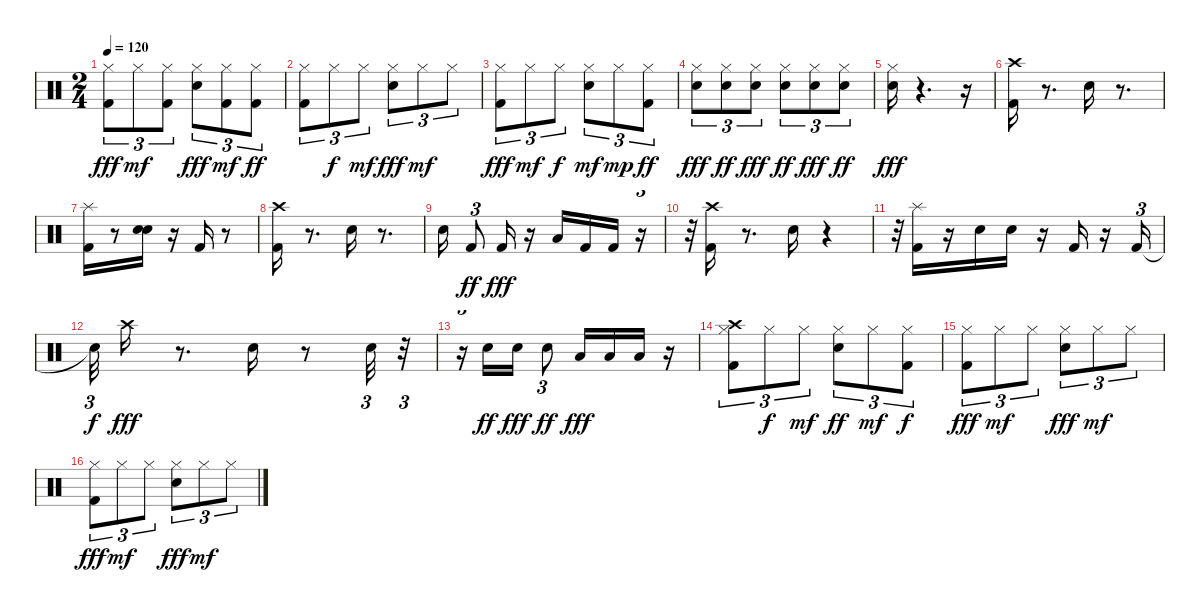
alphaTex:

\track "" {instrument percussion}
\staff {score}
\articulation defaults
\ts (2 4)
\tempo 120
\clef neutral
\ks c
("Kick (hit) 2" "Hi-Hat (closed)").8{tu (3 2) dy fff} "Hi-Hat (closed)".8{tu (3 2) dy mf} ("Kick (hit) 2" "Hi-Hat (closed)").8{tu (3 2)} ("Snare (hit) 2" "Hi-Hat (closed)").8{tu (3 2) dy fff} ("Kick (hit) 2" "Hi-Hat (closed)").8{tu (3 2) dy mf} ("Kick (hit) 2" "Hi-Hat (closed)").8{tu (3 2) dy ff} |
("Kick (hit) 2" "Hi-Hat (closed)").8{tu (3 2)} "Hi-Hat (closed)".8{tu (3 2) dy f} "Hi-Hat (closed)".8{tu (3 2) dy mf} ("Snare (hit) 2" "Hi-Hat (closed)").8{tu (3 2) dy fff} "Hi-Hat (closed)".8{tu (3 2) dy mf} "Hi-Hat (closed)".8{tu (3 2)} |
("Kick (hit) 2" "Hi-Hat (closed)").8{tu (3 2) dy fff} "Hi-Hat (closed)".8{tu (3 2) dy mf} "Hi-Hat (closed)".8{tu (3 2) dy f} ("Snare (hit) 2" "Hi-Hat (closed)").8{tu (3 2) dy mf} "Hi-Hat (closed)".8{tu (3 2) dy mp} ("Kick (hit) 2" "Hi-Hat (closed)").8{tu (3 2) dy ff} |
("Snare (hit) 2" "Hi-Hat (closed)").8{tu (3 2) dy fff} ("Hi-Hat (closed)" "Snare (hit) 2").8{tu (3 2) dy ff} ("Hi-Hat (closed)" "Snare (hit) 2").8{tu (3 2) dy fff} ("Snare (hit) 2" "Hi-Hat (closed)").8{tu (3 2) dy ff} ("Hi-Hat (closed)" "Snare (hit) 2").8{tu (3 2) dy fff} ("Snare (hit) 2" "Hi-Hat (closed)").8{tu (3 2) dy ff} |
("Snare (hit) 2" "Hi-Hat (closed)").16{dy fff} r.4{d} r.16 |
("Crash high (hit)" "Kick (hit) 2").16 r.8{d} "Snare (hit) 2".16 r.8{d} |
("Splash (hit)" "Kick (hit) 2").16 r.8 ("Snare (hit) 2" "Snare (hit) 2").16 r.16 "Kick (hit) 2".16 r.8 |
("Kick (hit) 2" "Crash high (hit)").16 r.8{d} "Snare (hit) 2".16 r.8{d} |
"Snare (hit) 2".16 "Kick (hit) 2".8{tu (3 2) dy ff} "Kick (hit) 2".16{dy fff} r.16 "Low Floor Tom (hit)".16 "Kick (hit) 2".16 "Kick (hit) 2".16 r.16{tu (3 2)} |
r.32{tu (3 2)} ("Crash high (hit)" "Kick (hit) 2").16 r.8{d} "Snare (hit) 2".16 r.4{tu (3 2)} |
r.32{tu (3 2)} ("Splash (hit)" "Kick (hit) 2").16 r.16 "Snare (hit) 2".16 "Snare (hit) 2".16 r.16 "Kick (hit) 2".16 r.16 "Kick (hit) 2".16{tu (3 2)} |
"Snare (hit)"{t}.32{tu (3 2) dy f} "Crash high (hit)".16{dy fff} r.8{d} "Snare (hit) 2".16 r.8 "Snare (hit) 2".32{tu (3 2)} r.32{tu (3 2)} |
r.16{tu (3 2)} "Snare (hit) 2".16{dy ff} "Snare (hit) 2".16{dy fff} "Snare (hit) 2".8{tu (3 2) dy ff} "Low Tom (hit)".16{dy fff} "Low Floor Tom (hit)".16 "Low Floor Tom (hit)".16 r.16 |
("Crash high (hit)" "Hi-Hat (closed)" "Kick (hit) 2").8{tu (3 2)} "Hi-Hat (closed)".8{tu (3 2) dy f} "Hi-Hat (closed)".8{tu (3 2) dy mf} ("Snare (hit) 2" "Hi-Hat (closed)").8{tu (3 2) dy ff} "Hi-Hat (closed)".8{tu (3 2) dy mf} ("Kick (hit) 2" "Hi-Hat (closed)").8{tu (3 2) dy f} |
("Hi-Hat (closed)" "Kick (hit) 2").8{tu (3 2) dy fff} "Hi-Hat (closed)".8{tu (3 2) dy mf} "Hi-Hat (closed)".8{tu (3 2)} ("Snare (hit) 2" "Hi-Hat (closed)").8{tu (3 2) dy fff} "Hi-Hat (closed)".8{tu (3 2) dy mf} "Hi-Hat (closed)".8{tu (3 2)} |
("Hi-Hat (closed)" "Kick (hit) 2").8{tu (3 2) dy fff} "Hi-Hat (closed)".8{tu (3 2) dy mf} "Hi-Hat (closed)".8{tu (3 2)} ("Snare (hit) 2" "Hi-Hat (closed)").8{tu (3 2) dy fff} "Hi-Hat (closed)".8{tu (3 2) dy mf} "Hi-Hat (closed)".8{tu (3 2)}
